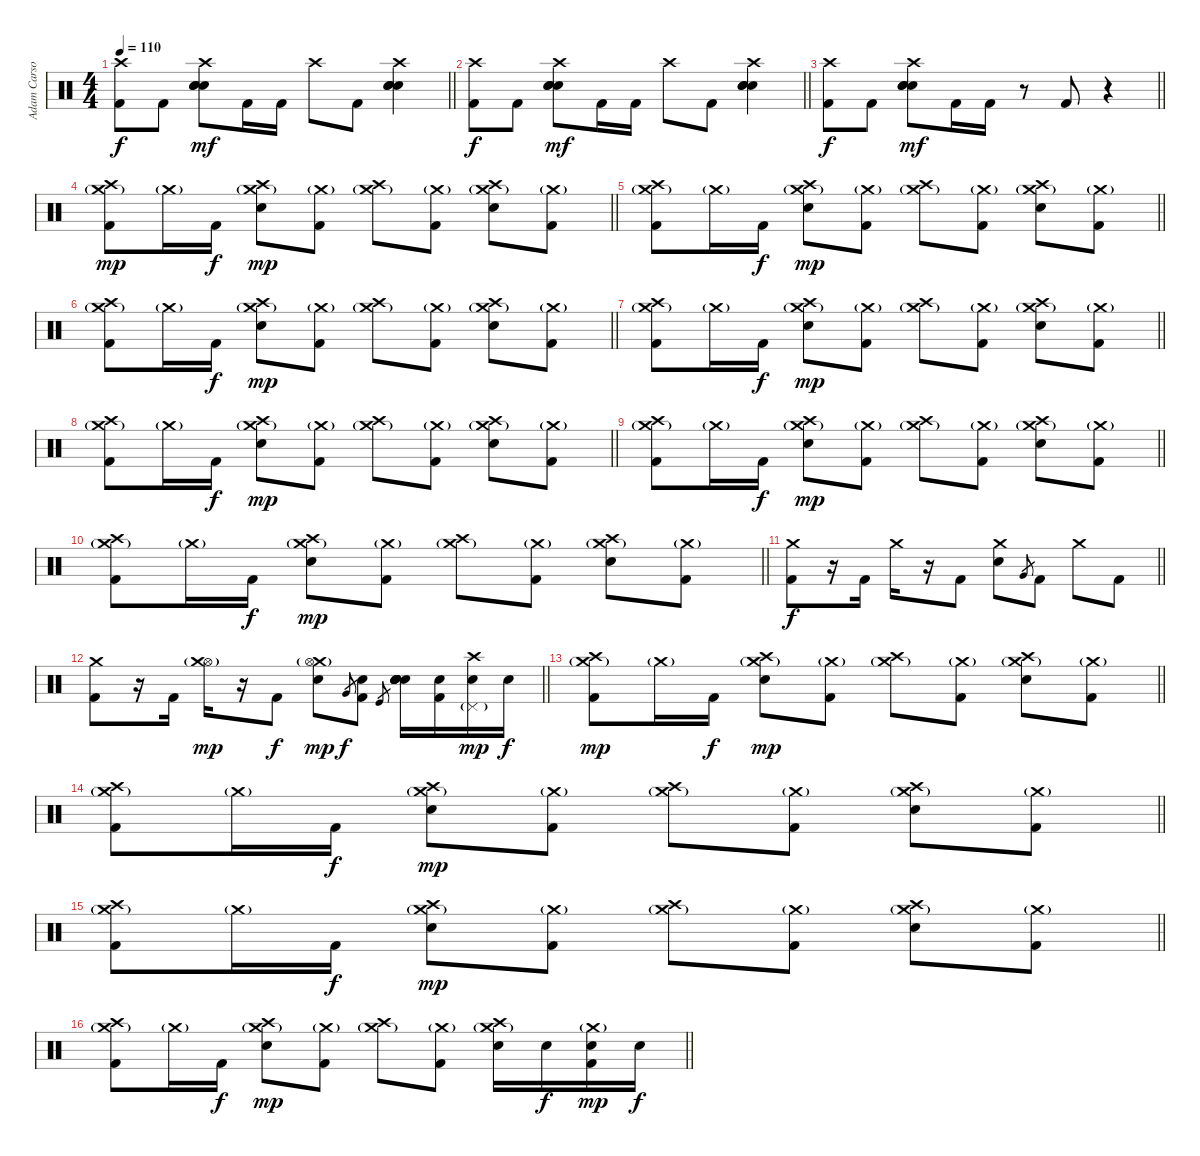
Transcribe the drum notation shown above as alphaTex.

\track ("Adam Carson" "Adam Carso") {instrument percussion}
\staff {score}
\articulation defaults
\ts (4 4)
\tempo 110
\clef neutral
\barLineRight lightlight
\ks c
("Crash high (hit)" "Kick (hit) 2").8{dy f} "Kick (hit) 2".8 ("Snare (hit) 2" "Hand Clap (hit)" "Snare (hit) 2" "Crash high (hit)").8{dy mf} "Kick (hit) 2".16 "Kick (hit) 2".16 "Crash high (hit)".8 "Kick (hit) 2".8 ("Snare (hit) 2" "Hand Clap (hit)" "Snare (hit) 2" "Crash high (hit)").4 |
\barLineRight lightlight
("Crash high (hit)" "Kick (hit) 2").8{dy f} "Kick (hit) 2".8 ("Snare (hit) 2" "Hand Clap (hit)" "Snare (hit) 2" "Crash high (hit)").8{dy mf} "Kick (hit) 2".16 "Kick (hit) 2".16 "Crash high (hit)".8 "Kick (hit) 2".8 ("Snare (hit) 2" "Hand Clap (hit)" "Snare (hit) 2" "Crash high (hit)").4 |
\barLineRight lightlight
("Crash high (hit)" "Kick (hit) 2").8{dy f} "Kick (hit) 2".8 ("Snare (hit) 2" "Hand Clap (hit)" "Snare (hit) 2" "Crash high (hit)").8{dy mf} "Kick (hit) 2".16 "Kick (hit) 2".16 r.8 "Kick (hit) 2".8 r.4 |
\barLineRight lightlight
("Crash high (hit)" "Crash medium (hit)"{g} "Kick (hit) 2").8{dy mp} "Crash medium (hit)"{g}.16 "Kick (hit) 2".16{dy f} ("Crash high (hit)" "Crash medium (hit)"{g} "Snare (hit) 2").8{dy mp} ("Crash medium (hit)"{g} "Kick (hit) 2").8 ("Crash high (hit)" "Crash medium (hit)"{g}).8 ("Crash medium (hit)"{g} "Kick (hit) 2").8 ("Crash high (hit)" "Crash medium (hit)"{g} "Snare (hit) 2").8 ("Crash medium (hit)"{g} "Kick (hit) 2").8 |
\barLineRight lightlight
("Crash high (hit)" "Crash medium (hit)"{g} "Kick (hit) 2").8 "Crash medium (hit)"{g}.16 "Kick (hit) 2".16{dy f} ("Crash high (hit)" "Crash medium (hit)"{g} "Snare (hit) 2").8{dy mp} ("Crash medium (hit)"{g} "Kick (hit) 2").8 ("Crash high (hit)" "Crash medium (hit)"{g}).8 ("Crash medium (hit)"{g} "Kick (hit) 2").8 ("Crash high (hit)" "Crash medium (hit)"{g} "Snare (hit) 2").8 ("Crash medium (hit)"{g} "Kick (hit) 2").8 |
\barLineRight lightlight
("Crash high (hit)" "Crash medium (hit)"{g} "Kick (hit) 2").8 "Crash medium (hit)"{g}.16 "Kick (hit) 2".16{dy f} ("Crash high (hit)" "Crash medium (hit)"{g} "Snare (hit) 2").8{dy mp} ("Crash medium (hit)"{g} "Kick (hit) 2").8 ("Crash high (hit)" "Crash medium (hit)"{g}).8 ("Crash medium (hit)"{g} "Kick (hit) 2").8 ("Crash high (hit)" "Crash medium (hit)"{g} "Snare (hit) 2").8 ("Crash medium (hit)"{g} "Kick (hit) 2").8 |
\barLineRight lightlight
("Crash high (hit)" "Crash medium (hit)"{g} "Kick (hit) 2").8 "Crash medium (hit)"{g}.16 "Kick (hit) 2".16{dy f} ("Crash high (hit)" "Crash medium (hit)"{g} "Snare (hit) 2").8{dy mp} ("Crash medium (hit)"{g} "Kick (hit) 2").8 ("Crash high (hit)" "Crash medium (hit)"{g}).8 ("Crash medium (hit)"{g} "Kick (hit) 2").8 ("Crash high (hit)" "Crash medium (hit)"{g} "Snare (hit) 2").8 ("Crash medium (hit)"{g} "Kick (hit) 2").8 |
\barLineRight lightlight
("Crash high (hit)" "Crash medium (hit)"{g} "Kick (hit) 2").8 "Crash medium (hit)"{g}.16 "Kick (hit) 2".16{dy f} ("Crash high (hit)" "Crash medium (hit)"{g} "Snare (hit) 2").8{dy mp} ("Crash medium (hit)"{g} "Kick (hit) 2").8 ("Crash high (hit)" "Crash medium (hit)"{g}).8 ("Crash medium (hit)"{g} "Kick (hit) 2").8 ("Crash high (hit)" "Crash medium (hit)"{g} "Snare (hit) 2").8 ("Crash medium (hit)"{g} "Kick (hit) 2").8 |
\barLineRight lightlight
("Crash high (hit)" "Crash medium (hit)"{g} "Kick (hit) 2").8 "Crash medium (hit)"{g}.16 "Kick (hit) 2".16{dy f} ("Crash high (hit)" "Crash medium (hit)"{g} "Snare (hit) 2").8{dy mp} ("Crash medium (hit)"{g} "Kick (hit) 2").8 ("Crash high (hit)" "Crash medium (hit)"{g}).8 ("Crash medium (hit)"{g} "Kick (hit) 2").8 ("Crash high (hit)" "Crash medium (hit)"{g} "Snare (hit) 2").8 ("Crash medium (hit)"{g} "Kick (hit) 2").8 |
\barLineRight lightlight
("Crash high (hit)" "Crash medium (hit)"{g} "Kick (hit) 2").8 "Crash medium (hit)"{g}.16 "Kick (hit) 2".16{dy f} ("Crash high (hit)" "Crash medium (hit)"{g} "Snare (hit) 2").8{dy mp} ("Crash medium (hit)"{g} "Kick (hit) 2").8 ("Crash high (hit)" "Crash medium (hit)"{g}).8 ("Crash medium (hit)"{g} "Kick (hit) 2").8 ("Crash high (hit)" "Crash medium (hit)"{g} "Snare (hit) 2").8 ("Crash medium (hit)"{g} "Kick (hit) 2").8 |
\barLineRight lightlight
("Crash medium (hit)" "Kick (hit) 2").8{dy f} r.16 "Kick (hit) 2".16 "Crash medium (hit)".16 r.16 "Kick (hit) 2".8 ("Crash medium (hit)" "Snare (hit) 2").8 "Very Low Tom (hit)".8{gr} "Kick (hit) 2".8 "Crash medium (hit)".8 "Kick (hit) 2".8 |
\barLineRight lightlight
("Crash medium (hit)" "Kick (hit) 2").8 r.16 "Kick (hit) 2".16 ("Hi-Hat (open)"{g} "Crash medium (hit)").16{dy mp} r.16 "Kick (hit) 2".8{dy f} ("Crash medium (hit)"{g} "Hi-Hat (open)" "Snare (hit) 2").8{dy mp} "Very Low Tom (hit)".8{gr dy f} ("Snare (hit) 2" "Kick (hit) 2").8 "Kick (hit)".8{gr} ("Snare (hit) 2" "Snare (hit) 2" "Snare (hit) 2" "Snare (hit) 2" "Snare (hit) 2" "Snare (hit) 2").16 ("Kick (hit) 2" "Snare (hit) 2").16 ("Crash high (hit)" "Snare (hit) 2" "Pedal Hi-Hat (hit)"{g}).16{dy mp} "Snare (hit) 2".16{dy f} |
\barLineRight lightlight
("Crash high (hit)" "Crash medium (hit)"{g} "Kick (hit) 2").8{dy mp} "Crash medium (hit)"{g}.16 "Kick (hit) 2".16{dy f} ("Crash high (hit)" "Crash medium (hit)"{g} "Snare (hit) 2").8{dy mp} ("Crash medium (hit)"{g} "Kick (hit) 2").8 ("Crash high (hit)" "Crash medium (hit)"{g}).8 ("Crash medium (hit)"{g} "Kick (hit) 2").8 ("Crash high (hit)" "Crash medium (hit)"{g} "Snare (hit) 2").8 ("Crash medium (hit)"{g} "Kick (hit) 2").8 |
\barLineRight lightlight
("Crash high (hit)" "Crash medium (hit)"{g} "Kick (hit) 2").8 "Crash medium (hit)"{g}.16 "Kick (hit) 2".16{dy f} ("Crash high (hit)" "Crash medium (hit)"{g} "Snare (hit) 2").8{dy mp} ("Crash medium (hit)"{g} "Kick (hit) 2").8 ("Crash high (hit)" "Crash medium (hit)"{g}).8 ("Crash medium (hit)"{g} "Kick (hit) 2").8 ("Crash high (hit)" "Crash medium (hit)"{g} "Snare (hit) 2").8 ("Crash medium (hit)"{g} "Kick (hit) 2").8 |
\barLineRight lightlight
("Crash high (hit)" "Crash medium (hit)"{g} "Kick (hit) 2").8 "Crash medium (hit)"{g}.16 "Kick (hit) 2".16{dy f} ("Crash high (hit)" "Crash medium (hit)"{g} "Snare (hit) 2").8{dy mp} ("Crash medium (hit)"{g} "Kick (hit) 2").8 ("Crash high (hit)" "Crash medium (hit)"{g}).8 ("Crash medium (hit)"{g} "Kick (hit) 2").8 ("Crash high (hit)" "Crash medium (hit)"{g} "Snare (hit) 2").8 ("Crash medium (hit)"{g} "Kick (hit) 2").8 |
\barLineRight lightlight
("Crash high (hit)" "Crash medium (hit)"{g} "Kick (hit) 2").8 "Crash medium (hit)"{g}.16 "Kick (hit) 2".16{dy f} ("Crash high (hit)" "Crash medium (hit)"{g} "Snare (hit) 2").8{dy mp} ("Crash medium (hit)"{g} "Kick (hit) 2").8 ("Crash high (hit)" "Crash medium (hit)"{g}).8 ("Crash medium (hit)"{g} "Kick (hit) 2").8 ("Crash high (hit)" "Crash medium (hit)"{g} "Snare (hit) 2").16 "Snare (hit) 2".16{dy f} ("Crash medium (hit)"{g} "Snare (hit) 2" "Kick (hit) 2").16{dy mp} "Snare (hit) 2".16{dy f}
